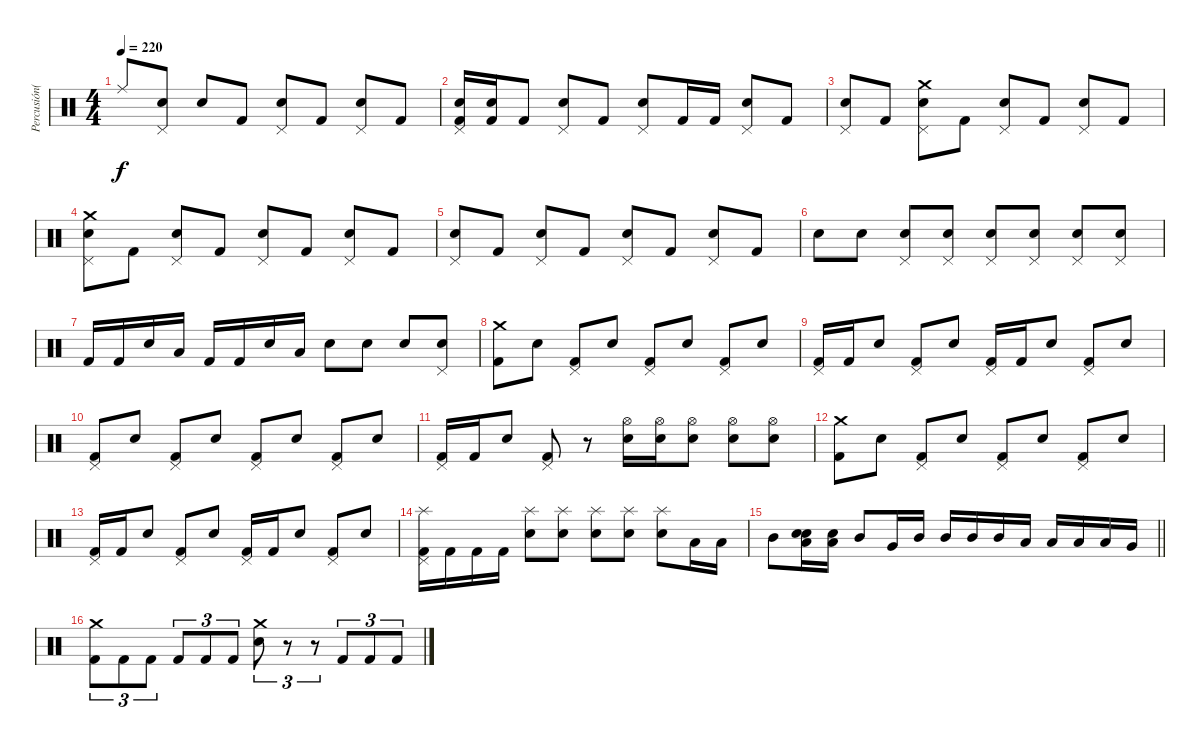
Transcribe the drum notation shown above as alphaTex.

\track ("Percusión(Brett Powell)" "Percusión(") {instrument percussion}
\staff {score}
\articulation defaults
\ts (4 4)
\tempo 220
\clef neutral
\ks c "Ride (middle)".8{dy f}
("Pedal Hi-Hat (hit)" "Electric Snare (hit)").8 "Electric Snare (hit)".8 "Kick (hit) 2".8 ("Pedal Hi-Hat (hit)" "Electric Snare (hit)").8 "Kick (hit) 2".8 ("Pedal Hi-Hat (hit)" "Electric Snare (hit)").8 "Kick (hit) 2".8 |
("Pedal Hi-Hat (hit)" "Electric Snare (hit)" "Kick (hit) 2").16 ("Electric Snare (hit)" "Kick (hit) 2").16 "Kick (hit) 2".8 ("Pedal Hi-Hat (hit)" "Electric Snare (hit)").8 "Kick (hit) 2".8 ("Pedal Hi-Hat (hit)" "Electric Snare (hit)").8 "Kick (hit) 2".16 "Kick (hit) 2".16 ("Pedal Hi-Hat (hit)" "Electric Snare (hit)").8 "Kick (hit) 2".8 |
("Pedal Hi-Hat (hit)" "Electric Snare (hit)").8 "Kick (hit) 2".8 ("Crash medium (hit)" "Pedal Hi-Hat (hit)" "Electric Snare (hit)").8 "Kick (hit) 2".8 ("Pedal Hi-Hat (hit)" "Electric Snare (hit)").8 "Kick (hit) 2".8 ("Pedal Hi-Hat (hit)" "Electric Snare (hit)").8 "Kick (hit) 2".8 |
("Crash medium (hit)" "Pedal Hi-Hat (hit)" "Electric Snare (hit)").8 "Kick (hit) 2".8 ("Pedal Hi-Hat (hit)" "Electric Snare (hit)").8 "Kick (hit) 2".8 ("Pedal Hi-Hat (hit)" "Electric Snare (hit)").8 "Kick (hit) 2".8 ("Pedal Hi-Hat (hit)" "Electric Snare (hit)").8 "Kick (hit) 2".8 |
("Pedal Hi-Hat (hit)" "Electric Snare (hit)").8 "Kick (hit) 2".8 ("Pedal Hi-Hat (hit)" "Electric Snare (hit)").8 "Kick (hit) 2".8 ("Pedal Hi-Hat (hit)" "Electric Snare (hit)").8 "Kick (hit) 2".8 ("Pedal Hi-Hat (hit)" "Electric Snare (hit)").8 "Kick (hit) 2".8 |
"Electric Snare (hit)".8 "Electric Snare (hit)".8 ("Pedal Hi-Hat (hit)" "Electric Snare (hit)").8 ("Pedal Hi-Hat (hit)" "Electric Snare (hit)").8 ("Pedal Hi-Hat (hit)" "Electric Snare (hit)").8 ("Pedal Hi-Hat (hit)" "Electric Snare (hit)").8 ("Pedal Hi-Hat (hit)" "Electric Snare (hit)").8 ("Pedal Hi-Hat (hit)" "Electric Snare (hit)").8 |
"Kick (hit) 2".16 "Kick (hit) 2".16 "Electric Snare (hit)".16 "Low Tom (hit)".16 "Kick (hit) 2".16 "Kick (hit) 2".16 "Electric Snare (hit)".16 "Low Tom (hit)".16 "Electric Snare (hit)".8 "Electric Snare (hit)".8 "Electric Snare (hit)".8 ("Pedal Hi-Hat (hit)" "Electric Snare (hit)").8 |
("Crash medium (hit)" "Kick (hit) 2").8 "Electric Snare (hit)".8 ("Pedal Hi-Hat (hit)" "Kick (hit) 2").8 "Electric Snare (hit)".8 ("Pedal Hi-Hat (hit)" "Kick (hit) 2").8 "Electric Snare (hit)".8 ("Pedal Hi-Hat (hit)" "Kick (hit) 2").8 "Electric Snare (hit)".8 |
("Pedal Hi-Hat (hit)" "Kick (hit) 2").16 "Kick (hit) 2".16 "Electric Snare (hit)".8 ("Pedal Hi-Hat (hit)" "Kick (hit) 2").8 "Electric Snare (hit)".8 ("Pedal Hi-Hat (hit)" "Kick (hit) 2").16 "Kick (hit) 2".16 "Electric Snare (hit)".8 ("Pedal Hi-Hat (hit)" "Kick (hit) 2").8 "Electric Snare (hit)".8 |
("Pedal Hi-Hat (hit)" "Kick (hit) 2").8 "Electric Snare (hit)".8 ("Pedal Hi-Hat (hit)" "Kick (hit) 2").8 "Electric Snare (hit)".8 ("Pedal Hi-Hat (hit)" "Kick (hit) 2").8 "Electric Snare (hit)".8 ("Pedal Hi-Hat (hit)" "Kick (hit) 2").8 "Electric Snare (hit)".8 |
("Pedal Hi-Hat (hit)" "Kick (hit) 2").16 "Kick (hit) 2".16 "Electric Snare (hit)".8 ("Pedal Hi-Hat (hit)" "Kick (hit) 2").8 r.8 ("Hi-Hat (open)" "Electric Snare (hit)").16 ("Hi-Hat (open)" "Electric Snare (hit)").16 ("Hi-Hat (open)" "Electric Snare (hit)").8 ("Hi-Hat (open)" "Electric Snare (hit)").8 ("Hi-Hat (open)" "Electric Snare (hit)").8 |
("Crash medium (hit)" "Kick (hit) 2").8 "Electric Snare (hit)".8 ("Pedal Hi-Hat (hit)" "Kick (hit) 2").8 "Electric Snare (hit)".8 ("Pedal Hi-Hat (hit)" "Kick (hit) 2").8 "Electric Snare (hit)".8 ("Pedal Hi-Hat (hit)" "Kick (hit) 2").8 "Electric Snare (hit)".8 |
("Pedal Hi-Hat (hit)" "Kick (hit) 2").16 "Kick (hit) 2".16 "Electric Snare (hit)".8 ("Pedal Hi-Hat (hit)" "Kick (hit) 2").8 "Electric Snare (hit)".8 ("Pedal Hi-Hat (hit)" "Kick (hit) 2").16 "Kick (hit) 2".16 "Electric Snare (hit)".8 ("Pedal Hi-Hat (hit)" "Kick (hit) 2").8 "Electric Snare (hit)".8 |
("Splash (hit)" "Pedal Hi-Hat (hit)" "Kick (hit) 2").16 "Kick (hit) 2".16 "Kick (hit) 2".16 "Kick (hit) 2".16 ("Splash (hit)" "Electric Snare (hit)").8 ("Splash (hit)" "Electric Snare (hit)").8 ("Splash (hit)" "Electric Snare (hit)").8 ("Splash (hit)" "Electric Snare (hit)").8 ("Splash (hit)" "Electric Snare (hit)").8 "Low Floor Tom (hit)".16 "Low Floor Tom (hit)".16 |
\barLineRight lightlight "Mid Tom (hit)".8
("Electric Snare (hit)" "Electric Snare (hit)" "Low Floor Tom (hit)").16 ("Electric Snare (hit)" "Low Floor Tom (hit)").16 "Mid Tom (hit)".8 "Very Low Tom (hit)".16 "Mid Tom (hit)".16 "Mid Tom (hit)".16 "Mid Tom (hit)".16 "Mid Tom (hit)".16 "Low Tom (hit)".16 "Low Tom (hit)".16 "Low Tom (hit)".16 "Low Tom (hit)".16 "Very Low Tom (hit)".16 |
("Crash medium (hit)" "Kick (hit) 2").8{tu (3 2)} "Kick (hit) 2".8{tu (3 2)} "Kick (hit) 2".8{tu (3 2)} "Kick (hit) 2".8{tu (3 2)} "Kick (hit) 2".8{tu (3 2)} "Kick (hit) 2".8{tu (3 2)} ("Crash medium (hit)" "Electric Snare (hit)").8{tu (3 2)} r.8{tu (3 2)} r.8{tu (3 2)} "Kick (hit) 2".8{tu (3 2)} "Kick (hit) 2".8{tu (3 2)} "Kick (hit) 2".8{tu (3 2)}
